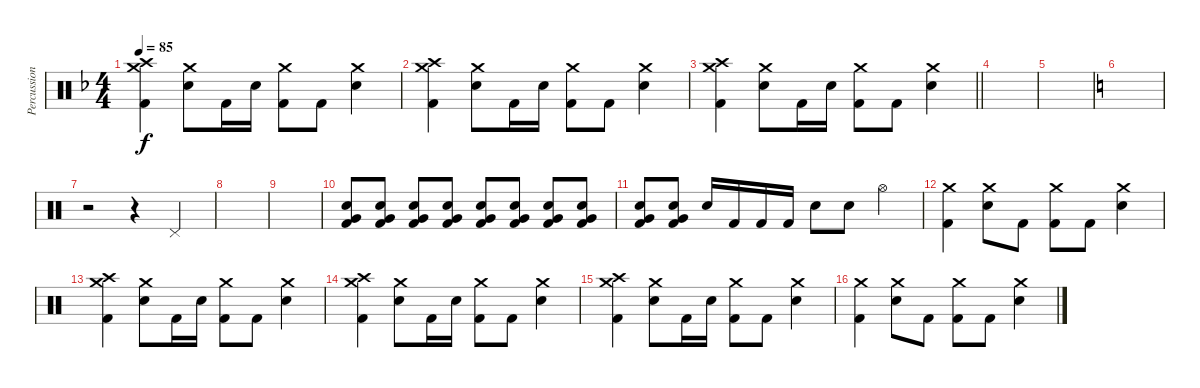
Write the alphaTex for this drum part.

\track ("Percussions" "Percussion") {instrument percussion}
\staff {score}
\articulation defaults
\ts (4 4)
\tempo 85
\clef neutral
\ks f
("Crash high (hit)" "Kick (hit) 2" "Crash medium (hit)").4{dy f} ("Electric Snare (hit)" "Crash medium (hit)").8 "Kick (hit) 2".16 "Electric Snare (hit)".16 ("Kick (hit) 2" "Crash medium (hit)").8 "Kick (hit) 2".8 ("Electric Snare (hit)" "Crash medium (hit)").4 |
("Crash high (hit)" "Kick (hit) 2" "Crash medium (hit)").4 ("Electric Snare (hit)" "Crash medium (hit)").8 "Kick (hit) 2".16 "Electric Snare (hit)".16 ("Kick (hit) 2" "Crash medium (hit)").8 "Kick (hit) 2".8 ("Electric Snare (hit)" "Crash medium (hit)").4 |
\barLineRight lightlight
("Crash high (hit)" "Kick (hit) 2" "Crash medium (hit)").4 ("Electric Snare (hit)" "Crash medium (hit)").8 "Kick (hit) 2".16 "Electric Snare (hit)".16 ("Kick (hit) 2" "Crash medium (hit)").8 "Kick (hit) 2".8 ("Electric Snare (hit)" "Crash medium (hit)").4 |
|
|
\ks c
|
r.2 r.4 "Pedal Hi-Hat (hit)".4 |
|
|
("Very Low Tom (hit)" "Kick (hit) 2" "Electric Snare (hit)").8 ("Very Low Tom (hit)" "Kick (hit) 2" "Electric Snare (hit)").8 ("Very Low Tom (hit)" "Kick (hit) 2" "Electric Snare (hit)").8 ("Very Low Tom (hit)" "Kick (hit) 2" "Electric Snare (hit)").8 ("Very Low Tom (hit)" "Kick (hit) 2" "Electric Snare (hit)").8 ("Very Low Tom (hit)" "Kick (hit) 2" "Electric Snare (hit)").8 ("Very Low Tom (hit)" "Kick (hit) 2" "Electric Snare (hit)").8 ("Very Low Tom (hit)" "Kick (hit) 2" "Electric Snare (hit)").8 |
("Very Low Tom (hit)" "Kick (hit) 2" "Electric Snare (hit)").8 ("Very Low Tom (hit)" "Kick (hit) 2" "Electric Snare (hit)").8 "Electric Snare (hit)".16 "Kick (hit) 2".16 "Kick (hit) 2".16 "Kick (hit) 2".16 "Electric Snare (hit)".8 "Electric Snare (hit)".8 "Hi-Hat (open)".4 |
("Kick (hit) 2" "Crash medium (hit)").4 ("Electric Snare (hit)" "Crash medium (hit)").8 "Kick (hit) 2".8 ("Kick (hit) 2" "Crash medium (hit)").8 "Kick (hit) 2".8 ("Electric Snare (hit)" "Crash medium (hit)").4 |
("Crash high (hit)" "Kick (hit) 2" "Crash medium (hit)").4 ("Electric Snare (hit)" "Crash medium (hit)").8 "Kick (hit) 2".16 "Electric Snare (hit)".16 ("Kick (hit) 2" "Crash medium (hit)").8 "Kick (hit) 2".8 ("Electric Snare (hit)" "Crash medium (hit)").4 |
("Crash high (hit)" "Kick (hit) 2" "Crash medium (hit)").4 ("Electric Snare (hit)" "Crash medium (hit)").8 "Kick (hit) 2".16 "Electric Snare (hit)".16 ("Kick (hit) 2" "Crash medium (hit)").8 "Kick (hit) 2".8 ("Electric Snare (hit)" "Crash medium (hit)").4 |
("Crash high (hit)" "Kick (hit) 2" "Crash medium (hit)").4 ("Electric Snare (hit)" "Crash medium (hit)").8 "Kick (hit) 2".16 "Electric Snare (hit)".16 ("Kick (hit) 2" "Crash medium (hit)").8 "Kick (hit) 2".8 ("Electric Snare (hit)" "Crash medium (hit)").4 |
("Kick (hit) 2" "Crash medium (hit)").4 ("Electric Snare (hit)" "Crash medium (hit)").8 "Kick (hit) 2".8 ("Kick (hit) 2" "Crash medium (hit)").8 "Kick (hit) 2".8 ("Electric Snare (hit)" "Crash medium (hit)").4
